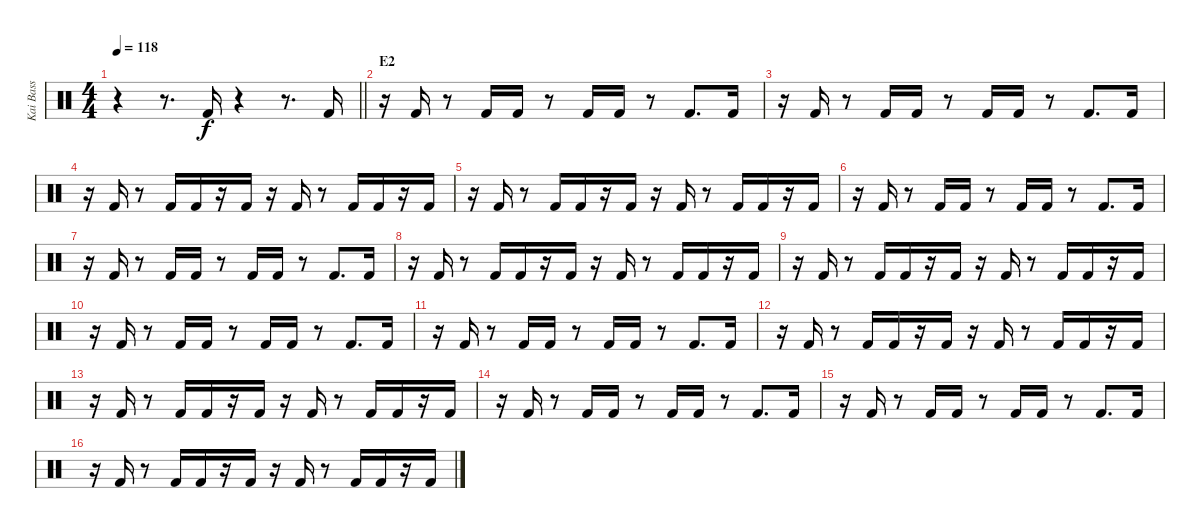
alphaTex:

\track ("Kai Bass" "Kai Bass") {instrument percussion}
\staff {score}
\articulation defaults
\ts (4 4)
\tempo 118
\clef neutral
\barLineRight lightlight
\ks c
r.4{dy f} r.8{d} "Kick (hit) 2".16 r.4 r.8{d} "Kick (hit) 2".16 |
\section ("" "E2")
r.16 "Kick (hit) 2".16 r.8 "Kick (hit) 2".16 "Kick (hit) 2".16 r.8 "Kick (hit) 2".16 "Kick (hit) 2".16 r.8 "Kick (hit) 2".8{d} "Kick (hit) 2".16 |
r.16 "Kick (hit) 2".16 r.8 "Kick (hit) 2".16 "Kick (hit) 2".16 r.8 "Kick (hit) 2".16 "Kick (hit) 2".16 r.8 "Kick (hit) 2".8{d} "Kick (hit) 2".16 |
r.16 "Kick (hit) 2".16 r.8 "Kick (hit) 2".16 "Kick (hit) 2".16 r.16 "Kick (hit) 2".16 r.16 "Kick (hit) 2".16 r.8 "Kick (hit) 2".16 "Kick (hit) 2".16 r.16 "Kick (hit) 2".16 |
r.16 "Kick (hit) 2".16 r.8 "Kick (hit) 2".16 "Kick (hit) 2".16 r.16 "Kick (hit) 2".16 r.16 "Kick (hit) 2".16 r.8 "Kick (hit) 2".16 "Kick (hit) 2".16 r.16 "Kick (hit) 2".16 |
r.16 "Kick (hit) 2".16 r.8 "Kick (hit) 2".16 "Kick (hit) 2".16 r.8 "Kick (hit) 2".16 "Kick (hit) 2".16 r.8 "Kick (hit) 2".8{d} "Kick (hit) 2".16 |
r.16 "Kick (hit) 2".16 r.8 "Kick (hit) 2".16 "Kick (hit) 2".16 r.8 "Kick (hit) 2".16 "Kick (hit) 2".16 r.8 "Kick (hit) 2".8{d} "Kick (hit) 2".16 |
r.16 "Kick (hit) 2".16 r.8 "Kick (hit) 2".16 "Kick (hit) 2".16 r.16 "Kick (hit) 2".16 r.16 "Kick (hit) 2".16 r.8 "Kick (hit) 2".16 "Kick (hit) 2".16 r.16 "Kick (hit) 2".16 |
r.16 "Kick (hit) 2".16 r.8 "Kick (hit) 2".16 "Kick (hit) 2".16 r.16 "Kick (hit) 2".16 r.16 "Kick (hit) 2".16 r.8 "Kick (hit) 2".16 "Kick (hit) 2".16 r.16 "Kick (hit) 2".16 |
r.16 "Kick (hit) 2".16 r.8 "Kick (hit) 2".16 "Kick (hit) 2".16 r.8 "Kick (hit) 2".16 "Kick (hit) 2".16 r.8 "Kick (hit) 2".8{d} "Kick (hit) 2".16 |
r.16 "Kick (hit) 2".16 r.8 "Kick (hit) 2".16 "Kick (hit) 2".16 r.8 "Kick (hit) 2".16 "Kick (hit) 2".16 r.8 "Kick (hit) 2".8{d} "Kick (hit) 2".16 |
r.16 "Kick (hit) 2".16 r.8 "Kick (hit) 2".16 "Kick (hit) 2".16 r.16 "Kick (hit) 2".16 r.16 "Kick (hit) 2".16 r.8 "Kick (hit) 2".16 "Kick (hit) 2".16 r.16 "Kick (hit) 2".16 |
r.16 "Kick (hit) 2".16 r.8 "Kick (hit) 2".16 "Kick (hit) 2".16 r.16 "Kick (hit) 2".16 r.16 "Kick (hit) 2".16 r.8 "Kick (hit) 2".16 "Kick (hit) 2".16 r.16 "Kick (hit) 2".16 |
r.16 "Kick (hit) 2".16 r.8 "Kick (hit) 2".16 "Kick (hit) 2".16 r.8 "Kick (hit) 2".16 "Kick (hit) 2".16 r.8 "Kick (hit) 2".8{d} "Kick (hit) 2".16 |
r.16 "Kick (hit) 2".16 r.8 "Kick (hit) 2".16 "Kick (hit) 2".16 r.8 "Kick (hit) 2".16 "Kick (hit) 2".16 r.8 "Kick (hit) 2".8{d} "Kick (hit) 2".16 |
r.16 "Kick (hit) 2".16 r.8 "Kick (hit) 2".16 "Kick (hit) 2".16 r.16 "Kick (hit) 2".16 r.16 "Kick (hit) 2".16 r.8 "Kick (hit) 2".16 "Kick (hit) 2".16 r.16 "Kick (hit) 2".16
